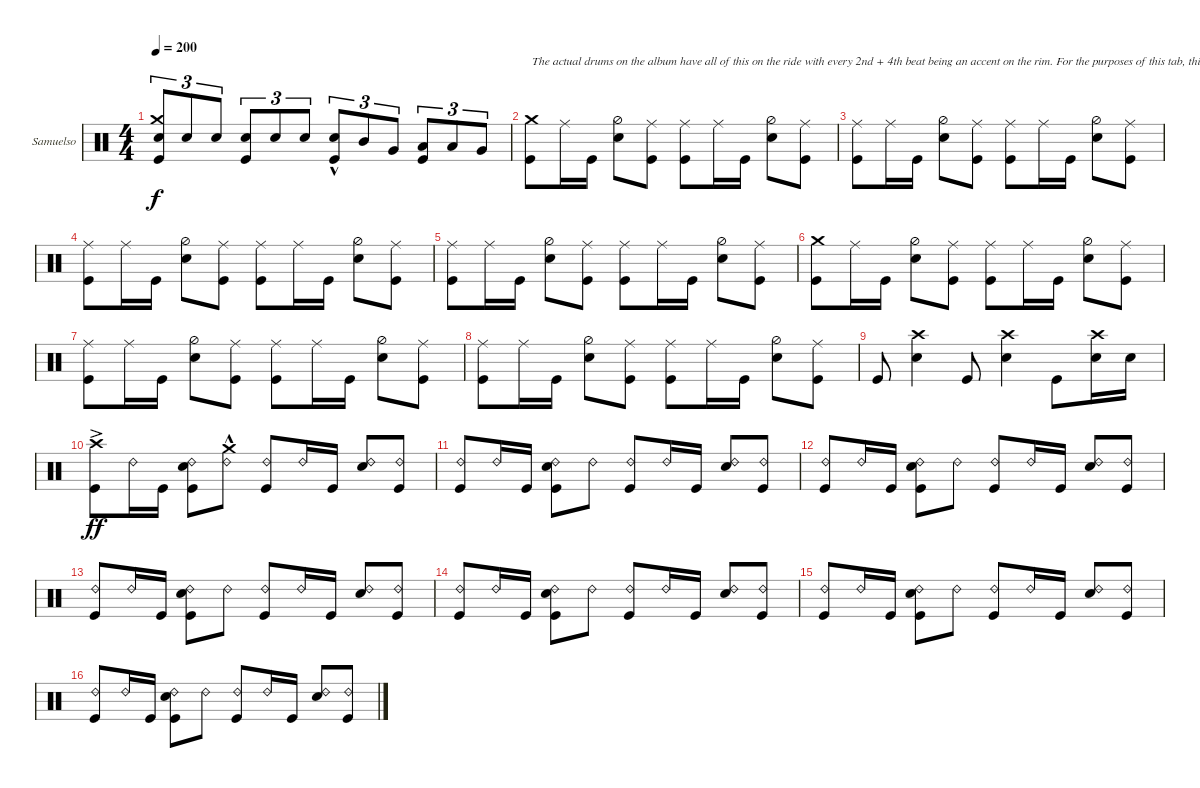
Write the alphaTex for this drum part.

\bracketExtendMode groupsimilarinstruments
\firstSystemTrackNameOrientation horizontal
\otherSystemsTrackNameOrientation horizontal
\track ("Gar Samuelson" "Samuelso") {instrument percussion}
\staff {score}
\articulation defaults
\ts (4 4)
\tempo 200
\clef neutral
\ks c
("Snare (hit) 2" "Crash medium (hit)" "Kick (hit)").8{tu (3 2) dy f} "Snare (hit) 2".8{tu (3 2)} "Snare (hit) 2".8{tu (3 2)} ("Snare (hit) 2" "Kick (hit)").8{tu (3 2)} "Snare (hit) 2".8{tu (3 2)} "Snare (hit) 2".8{tu (3 2)} ("Snare (hit) 2"{hac} "Kick (hit)").8{tu (3 2)} "Mid Tom (hit)".8{tu (3 2)} "Very Low Tom (hit)".8{tu (3 2)} ("Low Tom (hit)" "Kick (hit)").8{tu (3 2)} "Low Tom (hit)".8{tu (3 2)} "Very Low Tom (hit)".8{tu (3 2)} |
("Kick (hit)" "Crash medium (hit)").8{txt "The actual drums on the album have all of this on the ride with every 2nd + 4th beat being an accent on the rim. For the purposes of this tab, this sounded better."} "Ride (middle)".16 "Kick (hit)".16 ("Snare (hit) 2" "Hi-Hat (half)").8 ("Kick (hit)" "Ride (middle)").8 ("Kick (hit)" "Ride (middle)").8 "Ride (middle)".16 "Kick (hit)".16 ("Snare (hit) 2" "Hi-Hat (half)").8 ("Kick (hit)" "Ride (middle)").8 |
("Kick (hit)" "Ride (middle)").8 "Ride (middle)".16 "Kick (hit)".16 ("Snare (hit) 2" "Hi-Hat (half)").8 ("Kick (hit)" "Ride (middle)").8 ("Kick (hit)" "Ride (middle)").8 "Ride (middle)".16 "Kick (hit)".16 ("Snare (hit) 2" "Hi-Hat (half)").8 ("Kick (hit)" "Ride (middle)").8 |
("Kick (hit)" "Ride (middle)").8 "Ride (middle)".16 "Kick (hit)".16 ("Snare (hit) 2" "Hi-Hat (half)").8 ("Kick (hit)" "Ride (middle)").8 ("Kick (hit)" "Ride (middle)").8 "Ride (middle)".16 "Kick (hit)".16 ("Snare (hit) 2" "Hi-Hat (half)").8 ("Kick (hit)" "Ride (middle)").8 |
("Kick (hit)" "Ride (middle)").8 "Ride (middle)".16 "Kick (hit)".16 ("Snare (hit) 2" "Hi-Hat (half)").8 ("Kick (hit)" "Ride (middle)").8 ("Kick (hit)" "Ride (middle)").8 "Ride (middle)".16 "Kick (hit)".16 ("Snare (hit) 2" "Hi-Hat (half)").8 ("Kick (hit)" "Ride (middle)").8 |
("Kick (hit)" "Crash medium (hit)").8 "Ride (middle)".16 "Kick (hit)".16 ("Snare (hit) 2" "Hi-Hat (half)").8 ("Kick (hit)" "Ride (middle)").8 ("Kick (hit)" "Ride (middle)").8 "Ride (middle)".16 "Kick (hit)".16 ("Snare (hit) 2" "Hi-Hat (half)").8 ("Kick (hit)" "Ride (middle)").8 |
("Kick (hit)" "Ride (middle)").8 "Ride (middle)".16 "Kick (hit)".16 ("Snare (hit) 2" "Hi-Hat (half)").8 ("Kick (hit)" "Ride (middle)").8 ("Kick (hit)" "Ride (middle)").8 "Ride (middle)".16 "Kick (hit)".16 ("Snare (hit) 2" "Hi-Hat (half)").8 ("Kick (hit)" "Ride (middle)").8 |
("Kick (hit)" "Ride (middle)").8 "Ride (middle)".16 "Kick (hit)".16 ("Snare (hit) 2" "Hi-Hat (half)").8 ("Kick (hit)" "Ride (middle)").8 ("Kick (hit)" "Ride (middle)").8 "Ride (middle)".16 "Kick (hit)".16 ("Snare (hit) 2" "Hi-Hat (half)").8 ("Kick (hit)" "Ride (middle)").8 |
"Kick (hit)".8 ("Crash high (hit)" "Snare (hit) 2").4 "Kick (hit)".8 ("Crash high (hit)" "Snare (hit) 2").4 "Kick (hit)".8 ("Crash high (hit)" "Snare (hit) 2").16 "Snare (hit) 2".16 |
("Kick (hit)" "Crash high (hit)"{ac}).8{dy ff} "Ride (bell) 2".16 "Kick (hit)".16 ("Kick (hit)" "Snare (hit) 2" "Ride (bell) 2").8 ("Crash medium (hit)"{hac} "Ride (bell) 2").8 ("Kick (hit)" "Ride (bell) 2").8 "Ride (bell) 2".16 "Kick (hit)".16 ("Snare (hit) 2" "Ride (bell) 2").8 ("Kick (hit)" "Ride (bell) 2").8 |
("Kick (hit)" "Ride (bell) 2").8 "Ride (bell) 2".16 "Kick (hit)".16 ("Kick (hit)" "Snare (hit) 2" "Ride (bell) 2").8 "Ride (bell) 2".8 ("Kick (hit)" "Ride (bell) 2").8 "Ride (bell) 2".16 "Kick (hit)".16 ("Snare (hit) 2" "Ride (bell) 2").8 ("Kick (hit)" "Ride (bell) 2").8 |
("Kick (hit)" "Ride (bell) 2").8 "Ride (bell) 2".16 "Kick (hit)".16 ("Kick (hit)" "Snare (hit) 2" "Ride (bell) 2").8 "Ride (bell) 2".8 ("Kick (hit)" "Ride (bell) 2").8 "Ride (bell) 2".16 "Kick (hit)".16 ("Snare (hit) 2" "Ride (bell) 2").8 ("Kick (hit)" "Ride (bell) 2").8 |
("Kick (hit)" "Ride (bell) 2").8 "Ride (bell) 2".16 "Kick (hit)".16 ("Kick (hit)" "Snare (hit) 2" "Ride (bell) 2").8 "Ride (bell) 2".8 ("Kick (hit)" "Ride (bell) 2").8 "Ride (bell) 2".16 "Kick (hit)".16 ("Snare (hit) 2" "Ride (bell) 2").8 ("Kick (hit)" "Ride (bell) 2").8 |
("Kick (hit)" "Ride (bell) 2").8 "Ride (bell) 2".16 "Kick (hit)".16 ("Kick (hit)" "Snare (hit) 2" "Ride (bell) 2").8 "Ride (bell) 2".8 ("Kick (hit)" "Ride (bell) 2").8 "Ride (bell) 2".16 "Kick (hit)".16 ("Snare (hit) 2" "Ride (bell) 2").8 ("Kick (hit)" "Ride (bell) 2").8 |
("Kick (hit)" "Ride (bell) 2").8 "Ride (bell) 2".16 "Kick (hit)".16 ("Kick (hit)" "Snare (hit) 2" "Ride (bell) 2").8 "Ride (bell) 2".8 ("Kick (hit)" "Ride (bell) 2").8 "Ride (bell) 2".16 "Kick (hit)".16 ("Snare (hit) 2" "Ride (bell) 2").8 ("Kick (hit)" "Ride (bell) 2").8 |
("Kick (hit)" "Ride (bell) 2").8 "Ride (bell) 2".16 "Kick (hit)".16 ("Kick (hit)" "Snare (hit) 2" "Ride (bell) 2").8 "Ride (bell) 2".8 ("Kick (hit)" "Ride (bell) 2").8 "Ride (bell) 2".16 "Kick (hit)".16 ("Snare (hit) 2" "Ride (bell) 2").8 ("Kick (hit)" "Ride (bell) 2").8
